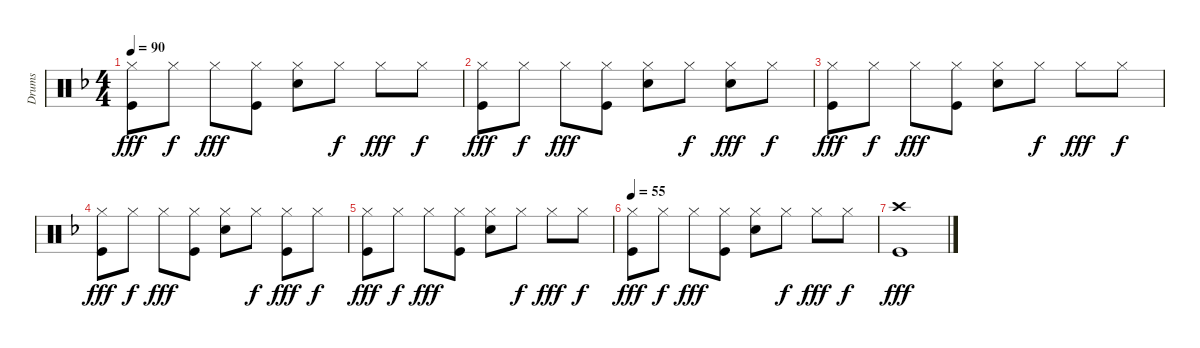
\track ("Drums" "Drums") {instrument percussion}
\staff {score}
\articulation defaults
\ts (4 4)
\tempo 90
\clef neutral
\ks f
("Hi-Hat (closed)" "Kick (hit)").8{dy fff} "Hi-Hat (closed)".8{dy f} "Hi-Hat (closed)".8{dy fff} ("Hi-Hat (closed)" "Kick (hit)").8 ("Hi-Hat (closed)" "Snare (hit) 2").8 "Hi-Hat (closed)".8{dy f} "Hi-Hat (closed)".8{dy fff} "Hi-Hat (closed)".8{dy f} |
("Hi-Hat (closed)" "Kick (hit)").8{dy fff} "Hi-Hat (closed)".8{dy f} "Hi-Hat (closed)".8{dy fff} ("Hi-Hat (closed)" "Kick (hit)").8 ("Hi-Hat (closed)" "Snare (hit) 2").8 "Hi-Hat (closed)".8{dy f} ("Hi-Hat (closed)" "Snare (hit) 2").8{dy fff} "Hi-Hat (closed)".8{dy f} |
("Hi-Hat (closed)" "Kick (hit)").8{dy fff} "Hi-Hat (closed)".8{dy f} "Hi-Hat (closed)".8{dy fff} ("Hi-Hat (closed)" "Kick (hit)").8 ("Hi-Hat (closed)" "Snare (hit) 2").8 "Hi-Hat (closed)".8{dy f} "Hi-Hat (closed)".8{dy fff} "Hi-Hat (closed)".8{dy f} |
("Hi-Hat (closed)" "Kick (hit)").8{dy fff} "Hi-Hat (closed)".8{dy f} "Hi-Hat (closed)".8{dy fff} ("Hi-Hat (closed)" "Kick (hit)").8 ("Hi-Hat (closed)" "Snare (hit) 2").8 "Hi-Hat (closed)".8{dy f} ("Hi-Hat (closed)" "Kick (hit)").8{dy fff} "Hi-Hat (closed)".8{dy f} |
("Hi-Hat (closed)" "Kick (hit)").8{dy fff} "Hi-Hat (closed)".8{dy f} "Hi-Hat (closed)".8{dy fff} ("Hi-Hat (closed)" "Kick (hit)").8 ("Hi-Hat (closed)" "Snare (hit) 2").8 "Hi-Hat (closed)".8{dy f} "Hi-Hat (closed)".8{dy fff} "Hi-Hat (closed)".8{dy f} |
\tempo 55
("Hi-Hat (closed)" "Kick (hit)").8{dy fff} "Hi-Hat (closed)".8{dy f} "Hi-Hat (closed)".8{dy fff} ("Hi-Hat (closed)" "Kick (hit)").8 ("Hi-Hat (closed)" "Snare (hit) 2").8 "Hi-Hat (closed)".8{dy f} "Hi-Hat (closed)".8{dy fff} "Hi-Hat (closed)".8{dy f} |
("Crash high (hit)" "Kick (hit)").1{dy fff}
